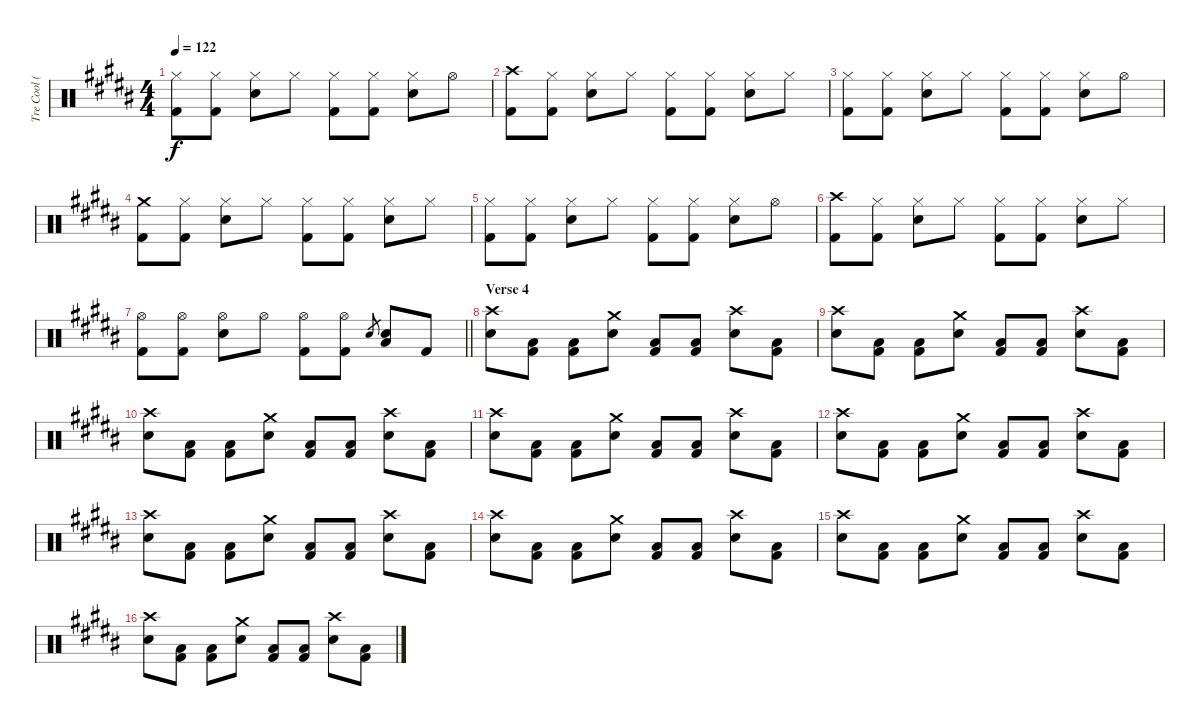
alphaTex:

\track ("Tre Cool (Drums)" "Tre Cool (") {instrument percussion}
\staff {score}
\articulation defaults
\ts (4 4)
\tempo 122
\clef neutral
\ks b
("Hi-Hat (closed)" "Kick (hit) 2").8{dy f} ("Hi-Hat (closed)" "Kick (hit) 2").8 ("Hi-Hat (closed)" "Electric Snare (hit)").8 "Hi-Hat (closed)".8 ("Hi-Hat (closed)" "Kick (hit) 2").8 ("Hi-Hat (closed)" "Kick (hit) 2").8 ("Hi-Hat (closed)" "Electric Snare (hit)").8 "Hi-Hat (open)".8 |
("Crash high (hit)" "Kick (hit) 2").8 ("Hi-Hat (closed)" "Kick (hit) 2").8 ("Hi-Hat (closed)" "Electric Snare (hit)").8 "Hi-Hat (closed)".8 ("Hi-Hat (closed)" "Kick (hit) 2").8 ("Hi-Hat (closed)" "Kick (hit) 2").8 ("Hi-Hat (closed)" "Electric Snare (hit)").8 "Hi-Hat (closed)".8 |
("Hi-Hat (closed)" "Kick (hit) 2").8 ("Hi-Hat (closed)" "Kick (hit) 2").8 ("Hi-Hat (closed)" "Electric Snare (hit)").8 "Hi-Hat (closed)".8 ("Hi-Hat (closed)" "Kick (hit) 2").8 ("Hi-Hat (closed)" "Kick (hit) 2").8 ("Hi-Hat (closed)" "Electric Snare (hit)").8 "Hi-Hat (open)".8 |
("Crash medium (hit)" "Kick (hit) 2").8 ("Hi-Hat (closed)" "Kick (hit) 2").8 ("Hi-Hat (closed)" "Electric Snare (hit)").8 "Hi-Hat (closed)".8 ("Hi-Hat (closed)" "Kick (hit) 2").8 ("Hi-Hat (closed)" "Kick (hit) 2").8 ("Hi-Hat (closed)" "Electric Snare (hit)").8 "Hi-Hat (closed)".8 |
("Hi-Hat (closed)" "Kick (hit) 2").8 ("Hi-Hat (closed)" "Kick (hit) 2").8 ("Hi-Hat (closed)" "Electric Snare (hit)").8 "Hi-Hat (closed)".8 ("Hi-Hat (closed)" "Kick (hit) 2").8 ("Hi-Hat (closed)" "Kick (hit) 2").8 ("Hi-Hat (closed)" "Electric Snare (hit)").8 "Hi-Hat (open)".8 |
("Crash high (hit)" "Kick (hit) 2").8 ("Hi-Hat (closed)" "Kick (hit) 2").8 ("Hi-Hat (closed)" "Electric Snare (hit)").8 "Hi-Hat (closed)".8 ("Hi-Hat (closed)" "Kick (hit) 2").8 ("Hi-Hat (closed)" "Kick (hit) 2").8 ("Hi-Hat (closed)" "Electric Snare (hit)").8 "Hi-Hat (closed)".8 |
\barLineRight lightlight
("Hi-Hat (open)" "Kick (hit) 2").8 ("Hi-Hat (open)" "Kick (hit) 2").8 ("Hi-Hat (open)" "Electric Snare (hit)").8 "Hi-Hat (open)".8 ("Hi-Hat (open)" "Kick (hit) 2").8 ("Hi-Hat (open)" "Kick (hit) 2").8 "Electric Snare (hit)".8{gr} ("Low Tom (hit)" "Electric Snare (hit)").8 "Kick (hit) 2".8 |
\section ("" "Verse 4")
("Crash high (hit)" "Electric Snare (hit)").8 ("Low Tom (hit)" "Kick (hit) 2").8 ("Low Tom (hit)" "Kick (hit) 2").8 ("Crash medium (hit)" "Electric Snare (hit)").8 ("Low Tom (hit)" "Kick (hit) 2").8 ("Low Tom (hit)" "Kick (hit) 2").8 ("Crash high (hit)" "Electric Snare (hit)").8 ("Low Tom (hit)" "Kick (hit) 2").8 |
("Crash high (hit)" "Electric Snare (hit)").8 ("Low Tom (hit)" "Kick (hit) 2").8 ("Low Tom (hit)" "Kick (hit) 2").8 ("Crash medium (hit)" "Electric Snare (hit)").8 ("Low Tom (hit)" "Kick (hit) 2").8 ("Low Tom (hit)" "Kick (hit) 2").8 ("Crash high (hit)" "Electric Snare (hit)").8 ("Low Tom (hit)" "Kick (hit) 2").8 |
("Crash high (hit)" "Electric Snare (hit)").8 ("Low Tom (hit)" "Kick (hit) 2").8 ("Low Tom (hit)" "Kick (hit) 2").8 ("Crash medium (hit)" "Electric Snare (hit)").8 ("Low Tom (hit)" "Kick (hit) 2").8 ("Low Tom (hit)" "Kick (hit) 2").8 ("Crash high (hit)" "Electric Snare (hit)").8 ("Low Tom (hit)" "Kick (hit) 2").8 |
("Crash high (hit)" "Electric Snare (hit)").8 ("Low Tom (hit)" "Kick (hit) 2").8 ("Low Tom (hit)" "Kick (hit) 2").8 ("Crash medium (hit)" "Electric Snare (hit)").8 ("Low Tom (hit)" "Kick (hit) 2").8 ("Low Tom (hit)" "Kick (hit) 2").8 ("Crash high (hit)" "Electric Snare (hit)").8 ("Low Tom (hit)" "Kick (hit) 2").8 |
("Crash high (hit)" "Electric Snare (hit)").8 ("Low Tom (hit)" "Kick (hit) 2").8 ("Low Tom (hit)" "Kick (hit) 2").8 ("Crash medium (hit)" "Electric Snare (hit)").8 ("Low Tom (hit)" "Kick (hit) 2").8 ("Low Tom (hit)" "Kick (hit) 2").8 ("Crash high (hit)" "Electric Snare (hit)").8 ("Low Tom (hit)" "Kick (hit) 2").8 |
("Crash high (hit)" "Electric Snare (hit)").8 ("Low Tom (hit)" "Kick (hit) 2").8 ("Low Tom (hit)" "Kick (hit) 2").8 ("Crash medium (hit)" "Electric Snare (hit)").8 ("Low Tom (hit)" "Kick (hit) 2").8 ("Low Tom (hit)" "Kick (hit) 2").8 ("Crash high (hit)" "Electric Snare (hit)").8 ("Low Tom (hit)" "Kick (hit) 2").8 |
("Crash high (hit)" "Electric Snare (hit)").8 ("Low Tom (hit)" "Kick (hit) 2").8 ("Low Tom (hit)" "Kick (hit) 2").8 ("Crash medium (hit)" "Electric Snare (hit)").8 ("Low Tom (hit)" "Kick (hit) 2").8 ("Low Tom (hit)" "Kick (hit) 2").8 ("Crash high (hit)" "Electric Snare (hit)").8 ("Low Tom (hit)" "Kick (hit) 2").8 |
("Crash high (hit)" "Electric Snare (hit)").8 ("Low Tom (hit)" "Kick (hit) 2").8 ("Low Tom (hit)" "Kick (hit) 2").8 ("Crash medium (hit)" "Electric Snare (hit)").8 ("Low Tom (hit)" "Kick (hit) 2").8 ("Low Tom (hit)" "Kick (hit) 2").8 ("Crash high (hit)" "Electric Snare (hit)").8 ("Low Tom (hit)" "Kick (hit) 2").8 |
("Crash high (hit)" "Electric Snare (hit)").8 ("Low Tom (hit)" "Kick (hit) 2").8 ("Low Tom (hit)" "Kick (hit) 2").8 ("Crash medium (hit)" "Electric Snare (hit)").8 ("Low Tom (hit)" "Kick (hit) 2").8 ("Low Tom (hit)" "Kick (hit) 2").8 ("Crash high (hit)" "Electric Snare (hit)").8 ("Low Tom (hit)" "Kick (hit) 2").8
